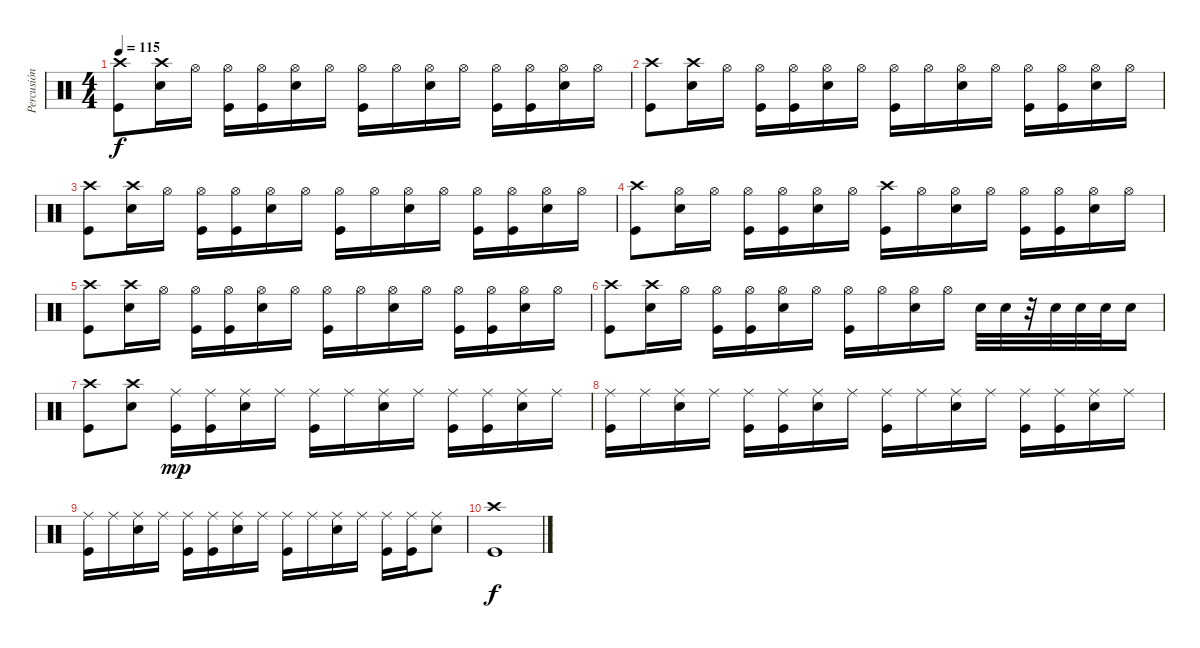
\track ("Percusión" "Percusión") {instrument percussion}
\staff {score}
\articulation defaults
\ts (4 4)
\tempo 115
\clef neutral
\ks c
("Kick (hit)" "Crash high (hit)").8{dy f} ("Snare (hit) 2" "Crash high (hit)").16 "Hi-Hat (open)".16 ("Kick (hit)" "Hi-Hat (open)").16 ("Kick (hit)" "Hi-Hat (open)").16 ("Snare (hit) 2" "Hi-Hat (open)").16 "Hi-Hat (open)".16 ("Kick (hit)" "Hi-Hat (open)").16 "Hi-Hat (open)".16 ("Snare (hit) 2" "Hi-Hat (open)").16 "Hi-Hat (open)".16 ("Kick (hit)" "Hi-Hat (open)").16 ("Kick (hit)" "Hi-Hat (open)").16 ("Snare (hit) 2" "Hi-Hat (open)").16 "Hi-Hat (open)".16 |
("Kick (hit)" "Crash high (hit)").8 ("Snare (hit) 2" "Crash high (hit)").16 "Hi-Hat (open)".16 ("Kick (hit)" "Hi-Hat (open)").16 ("Kick (hit)" "Hi-Hat (open)").16 ("Snare (hit) 2" "Hi-Hat (open)").16 "Hi-Hat (open)".16 ("Kick (hit)" "Hi-Hat (open)").16 "Hi-Hat (open)".16 ("Snare (hit) 2" "Hi-Hat (open)").16 "Hi-Hat (open)".16 ("Kick (hit)" "Hi-Hat (open)").16 ("Kick (hit)" "Hi-Hat (open)").16 ("Snare (hit) 2" "Hi-Hat (open)").16 "Hi-Hat (open)".16 |
("Kick (hit)" "Crash high (hit)").8 ("Snare (hit) 2" "Crash high (hit)").16 "Hi-Hat (open)".16 ("Kick (hit)" "Hi-Hat (open)").16 ("Kick (hit)" "Hi-Hat (open)").16 ("Snare (hit) 2" "Hi-Hat (open)").16 "Hi-Hat (open)".16 ("Kick (hit)" "Hi-Hat (open)").16 "Hi-Hat (open)".16 ("Snare (hit) 2" "Hi-Hat (open)").16 "Hi-Hat (open)".16 ("Kick (hit)" "Hi-Hat (open)").16 ("Kick (hit)" "Hi-Hat (open)").16 ("Snare (hit) 2" "Hi-Hat (open)").16 "Hi-Hat (open)".16 |
("Kick (hit)" "Crash high (hit)").8 ("Snare (hit) 2" "Hi-Hat (open)").16 "Hi-Hat (open)".16 ("Kick (hit)" "Hi-Hat (open)").16 ("Kick (hit)" "Hi-Hat (open)").16 ("Snare (hit) 2" "Hi-Hat (open)").16 "Hi-Hat (open)".16 ("Kick (hit)" "Crash high (hit)").16 "Hi-Hat (open)".16 ("Snare (hit) 2" "Hi-Hat (open)").16 "Hi-Hat (open)".16 ("Kick (hit)" "Hi-Hat (open)").16 ("Kick (hit)" "Hi-Hat (open)").16 ("Snare (hit) 2" "Hi-Hat (open)").16 "Hi-Hat (open)".16 |
("Kick (hit)" "Crash high (hit)").8 ("Snare (hit) 2" "Crash high (hit)").16 "Hi-Hat (open)".16 ("Kick (hit)" "Hi-Hat (open)").16 ("Kick (hit)" "Hi-Hat (open)").16 ("Snare (hit) 2" "Hi-Hat (open)").16 "Hi-Hat (open)".16 ("Kick (hit)" "Hi-Hat (open)").16 "Hi-Hat (open)".16 ("Snare (hit) 2" "Hi-Hat (open)").16 "Hi-Hat (open)".16 ("Kick (hit)" "Hi-Hat (open)").16 ("Kick (hit)" "Hi-Hat (open)").16 ("Snare (hit) 2" "Hi-Hat (open)").16 "Hi-Hat (open)".16 |
("Kick (hit)" "Crash high (hit)").8 ("Snare (hit) 2" "Crash high (hit)").16 "Hi-Hat (open)".16 ("Kick (hit)" "Hi-Hat (open)").16 ("Kick (hit)" "Hi-Hat (open)").16 ("Snare (hit) 2" "Hi-Hat (open)").16 "Hi-Hat (open)".16 ("Kick (hit)" "Hi-Hat (open)").16 "Hi-Hat (open)".16 ("Snare (hit) 2" "Hi-Hat (open)").16 "Hi-Hat (open)".16 "Snare (hit) 2".32 "Snare (hit) 2".32 r.32 "Snare (hit) 2".32 "Snare (hit) 2".32 "Snare (hit) 2".32 "Snare (hit) 2".16 |
("Kick (hit)" "Crash high (hit)").8 ("Snare (hit) 2" "Crash high (hit)").8 ("Kick (hit)" "Ride (middle)").16{dy mp} ("Kick (hit)" "Ride (middle)").16 ("Snare (hit) 2" "Ride (middle)").16 "Ride (middle)".16 ("Kick (hit)" "Ride (middle)").16 "Ride (middle)".16 ("Snare (hit) 2" "Ride (middle)").16 "Ride (middle)".16 ("Kick (hit)" "Ride (middle)").16 ("Kick (hit)" "Ride (middle)").16 ("Snare (hit) 2" "Ride (middle)").16 "Ride (middle)".16 |
("Kick (hit)" "Ride (middle)").16 "Ride (middle)".16 ("Snare (hit) 2" "Ride (middle)").16 "Ride (middle)".16 ("Kick (hit)" "Ride (middle)").16 ("Kick (hit)" "Ride (middle)").16 ("Snare (hit) 2" "Ride (middle)").16 "Ride (middle)".16 ("Kick (hit)" "Ride (middle)").16 "Ride (middle)".16 ("Snare (hit) 2" "Ride (middle)").16 "Ride (middle)".16 ("Kick (hit)" "Ride (middle)").16 ("Kick (hit)" "Ride (middle)").16 ("Snare (hit) 2" "Ride (middle)").16 "Ride (middle)".16 |
("Kick (hit)" "Ride (middle)").16 "Ride (middle)".16 ("Snare (hit) 2" "Ride (middle)").16 "Ride (middle)".16 ("Kick (hit)" "Ride (middle)").16 ("Kick (hit)" "Ride (middle)").16 ("Snare (hit) 2" "Ride (middle)").16 "Ride (middle)".16 ("Kick (hit)" "Ride (middle)").16 "Ride (middle)".16 ("Snare (hit) 2" "Ride (middle)").16 "Ride (middle)".16 ("Kick (hit)" "Ride (middle)").16 ("Kick (hit)" "Ride (middle)").16 ("Snare (hit) 2" "Ride (middle)").8 |
("Kick (hit)" "Crash high (hit)").1{dy f}
